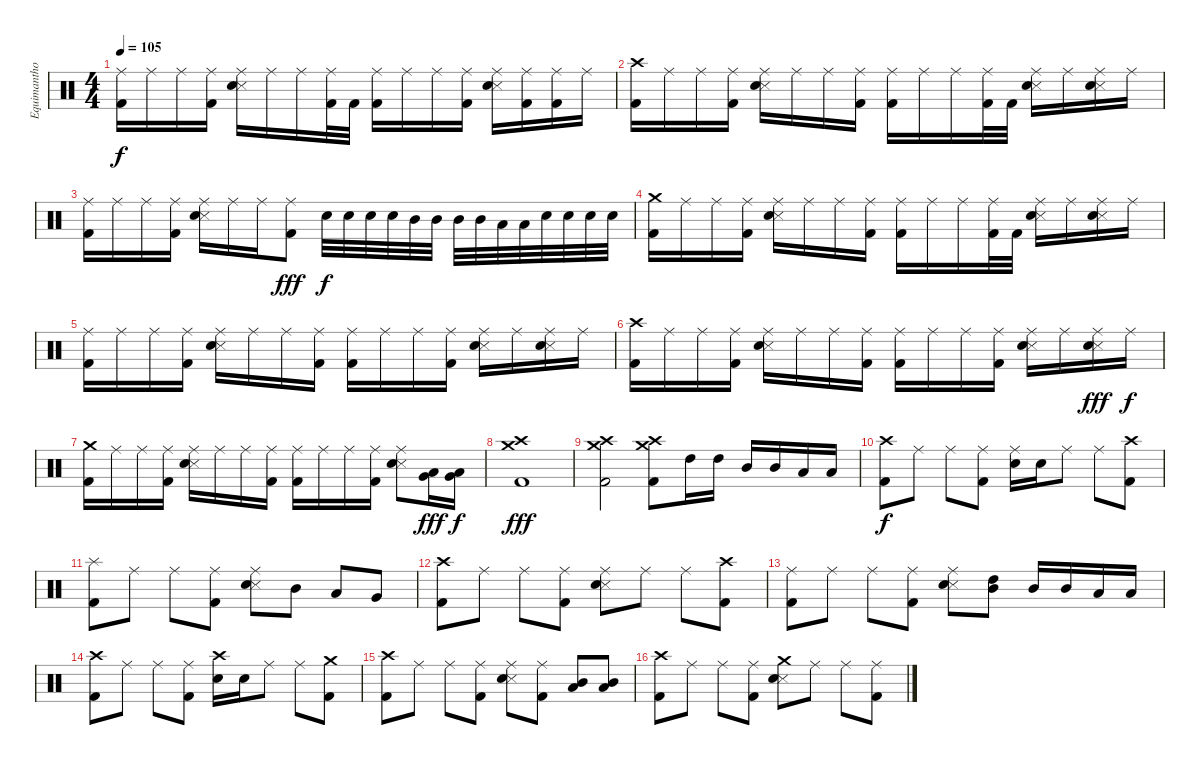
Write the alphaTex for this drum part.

\track ("Equimanthorn" "Equimantho") {instrument percussion}
\staff {score}
\articulation defaults
\ts (4 4)
\tempo 105
\clef neutral
\ks c
("Ride (middle)" "Kick (hit) 2").16{dy f} "Ride (middle)".16 "Ride (middle)".16 ("Ride (middle)" "Kick (hit) 2").16 ("Ride (middle)" "Snare (side stick) 3" "Snare (hit) 2").16 "Ride (middle)".16 "Ride (middle)".16 ("Ride (middle)" "Kick (hit) 2").32 "Kick (hit) 2".32 ("Ride (middle)" "Kick (hit) 2").16 "Ride (middle)".16 "Ride (middle)".16 ("Ride (middle)" "Kick (hit) 2").16 ("Ride (middle)" "Snare (side stick) 3" "Snare (hit) 2").16 ("Ride (middle)" "Kick (hit) 2").16 ("Ride (middle)" "Kick (hit) 2").16 "Ride (middle)".16 |
("Crash high (hit)" "Kick (hit) 2").16 "Ride (middle)".16 "Ride (middle)".16 ("Ride (middle)" "Kick (hit) 2").16 ("Ride (middle)" "Snare (side stick) 3" "Snare (hit) 2").16 "Ride (middle)".16 "Ride (middle)".16 ("Ride (middle)" "Kick (hit) 2").16 ("Ride (middle)" "Kick (hit) 2").16 "Ride (middle)".16 "Ride (middle)".16 ("Ride (middle)" "Kick (hit) 2").32 "Kick (hit) 2".32 ("Ride (middle)" "Snare (side stick) 3" "Snare (hit) 2").16 "Ride (middle)".16 ("Ride (middle)" "Snare (side stick) 3" "Snare (hit) 2").16 "Ride (middle)".16 |
("Ride (middle)" "Kick (hit) 2").16 "Ride (middle)".16 "Ride (middle)".16 ("Ride (middle)" "Kick (hit) 2").16 ("Ride (middle)" "Snare (side stick) 3" "Snare (hit) 2").16 "Ride (middle)".16 "Ride (middle)".16 ("Ride (middle)" "Kick (hit) 2").8{dy fff} "Snare (hit) 2".32{dy f} "Snare (hit) 2".32 "Snare (hit) 2".32 "Snare (hit) 2".32 "Mid Tom (hit)".32 "Mid Tom (hit)".32 "Mid Tom (hit)".32 "Mid Tom (hit)".32 "Low Tom (hit)".32 "Low Tom (hit)".32 "Snare (hit) 2".32 "Snare (hit) 2".32 "Snare (hit) 2".32 "Snare (hit) 2".32 |
("Crash medium (hit)" "Kick (hit) 2").16 "Ride (middle)".16 "Ride (middle)".16 ("Ride (middle)" "Kick (hit) 2").16 ("Ride (middle)" "Snare (side stick) 3" "Snare (hit) 2").16 "Ride (middle)".16 "Ride (middle)".16 ("Ride (middle)" "Kick (hit) 2").16 ("Ride (middle)" "Kick (hit) 2").16 "Ride (middle)".16 "Ride (middle)".16 ("Ride (middle)" "Kick (hit) 2").32 "Kick (hit) 2".32 ("Ride (middle)" "Snare (side stick) 3" "Snare (hit) 2").16 "Ride (middle)".16 ("Ride (middle)" "Snare (side stick) 3" "Snare (hit) 2").16 "Ride (middle)".16 |
("Ride (middle)" "Kick (hit) 2").16 "Ride (middle)".16 "Ride (middle)".16 ("Ride (middle)" "Kick (hit) 2").16 ("Ride (middle)" "Snare (side stick) 3" "Snare (hit) 2").16 "Ride (middle)".16 "Ride (middle)".16 ("Ride (middle)" "Kick (hit) 2").16 ("Ride (middle)" "Kick (hit) 2").16 "Ride (middle)".16 "Ride (middle)".16 ("Ride (middle)" "Kick (hit) 2").16 ("Ride (middle)" "Snare (side stick) 3" "Snare (hit) 2").16 "Ride (middle)".16 ("Ride (middle)" "Snare (side stick) 3" "Snare (hit) 2").16 "Ride (middle)".16 |
("Crash high (hit)" "Kick (hit) 2").16 "Ride (middle)".16 "Ride (middle)".16 ("Ride (middle)" "Kick (hit) 2").16 ("Ride (middle)" "Snare (side stick) 3" "Snare (hit) 2").16 "Ride (middle)".16 "Ride (middle)".16 ("Ride (middle)" "Kick (hit) 2").16 ("Ride (middle)" "Kick (hit) 2").16 "Ride (middle)".16 "Ride (middle)".16 ("Ride (middle)" "Kick (hit) 2").16 ("Ride (middle)" "Snare (side stick) 3" "Snare (hit) 2").16 "Ride (middle)".16 ("Ride (middle)" "Snare (side stick) 3" "Snare (hit) 2").16{dy fff} "Ride (middle)".16{dy f} |
("Crash medium (hit)" "Kick (hit) 2").16 "Ride (middle)".16 "Ride (middle)".16 ("Ride (middle)" "Kick (hit) 2").16 ("Ride (middle)" "Snare (side stick) 3" "Snare (hit) 2").16 "Ride (middle)".16 "Ride (middle)".16 ("Ride (middle)" "Kick (hit) 2").16 ("Ride (middle)" "Kick (hit) 2").16 "Ride (middle)".16 "Ride (middle)".16 ("Ride (middle)" "Kick (hit) 2").16 ("Ride (middle)" "Snare (side stick) 3" "Snare (hit) 2").8 ("Low Tom (hit)" "Very Low Tom (hit)").16{dy fff} ("Low Tom (hit)" "Very Low Tom (hit)").16{dy f} |
("Crash medium (hit)" "Crash high (hit)" "Kick (hit) 2").1{dy fff} |
("Crash medium (hit)" "Crash high (hit)" "Kick (hit) 2").2 ("Crash medium (hit)" "Crash high (hit)" "Kick (hit) 2").8 "High Tom (hit)".16 "High Tom (hit)".16 "Mid Tom (hit)".16 "Mid Tom (hit)".16 "Low Tom (hit)".16 "Low Tom (hit)".16 |
("Crash high (hit)" "Kick (hit) 2").8{dy f} "Ride (middle)".8 "Ride (middle)".8 ("Ride (middle)" "Kick (hit) 2").8 ("Ride (middle)" "Snare (hit) 2").16 "Snare (hit) 2".16 "Ride (middle)".8 "Ride (middle)".8 ("Crash high (hit)" "Kick (hit) 2").8 |
("Splash (hit)" "Kick (hit) 2").8 "Ride (middle)".8 "Ride (middle)".8 ("Ride (middle)" "Kick (hit) 2").8 ("Ride (middle)" "Snare (side stick) 3" "Snare (hit) 2").8 "Mid Tom (hit)".8 "Low Tom (hit)".8 "Very Low Tom (hit)".8 |
("Crash high (hit)" "Kick (hit) 2").8 "Ride (middle)".8 "Ride (middle)".8 ("Ride (middle)" "Kick (hit) 2").8 ("Ride (middle)" "Snare (side stick) 3" "Snare (hit) 2").8 "Ride (middle)".8 "Ride (middle)".8 ("Crash high (hit)" "Kick (hit) 2").8 |
("Ride (middle)" "Kick (hit) 2").8 "Ride (middle)".8 "Ride (middle)".8 ("Ride (middle)" "Kick (hit) 2").8 ("Ride (middle)" "Snare (side stick) 3" "Snare (hit) 2").8 ("High Tom (hit)" "Mid Tom (hit)").8 "Mid Tom (hit)".16 "Mid Tom (hit)".16 "Low Tom (hit)".16 "Low Tom (hit)".16 |
("Crash high (hit)" "Kick (hit) 2").8 "Ride (middle)".8 "Ride (middle)".8 ("Ride (middle)" "Kick (hit) 2").8 ("Crash high (hit)" "Snare (hit) 2").16 "Snare (hit) 2".16 "Ride (middle)".8 "Ride (middle)".8 ("Crash medium (hit)" "Kick (hit) 2").8 |
("Crash high (hit)" "Kick (hit) 2").8 "Ride (middle)".8 "Ride (middle)".8 ("Ride (middle)" "Kick (hit) 2").8 ("Ride (middle)" "Snare (side stick) 3" "Snare (hit) 2").8 ("Ride (middle)" "Kick (hit) 2").8 ("Mid Tom (hit)" "Low Tom (hit)").8 ("Mid Tom (hit)" "Low Tom (hit)").8 |
("Crash high (hit)" "Kick (hit) 2").8 "Ride (middle)".8 "Ride (middle)".8 ("Ride (middle)" "Kick (hit) 2").8 ("Crash medium (hit)" "Snare (side stick) 3" "Snare (hit) 2").8 "Ride (middle)".8 "Ride (middle)".8 ("Ride (middle)" "Kick (hit) 2").8
